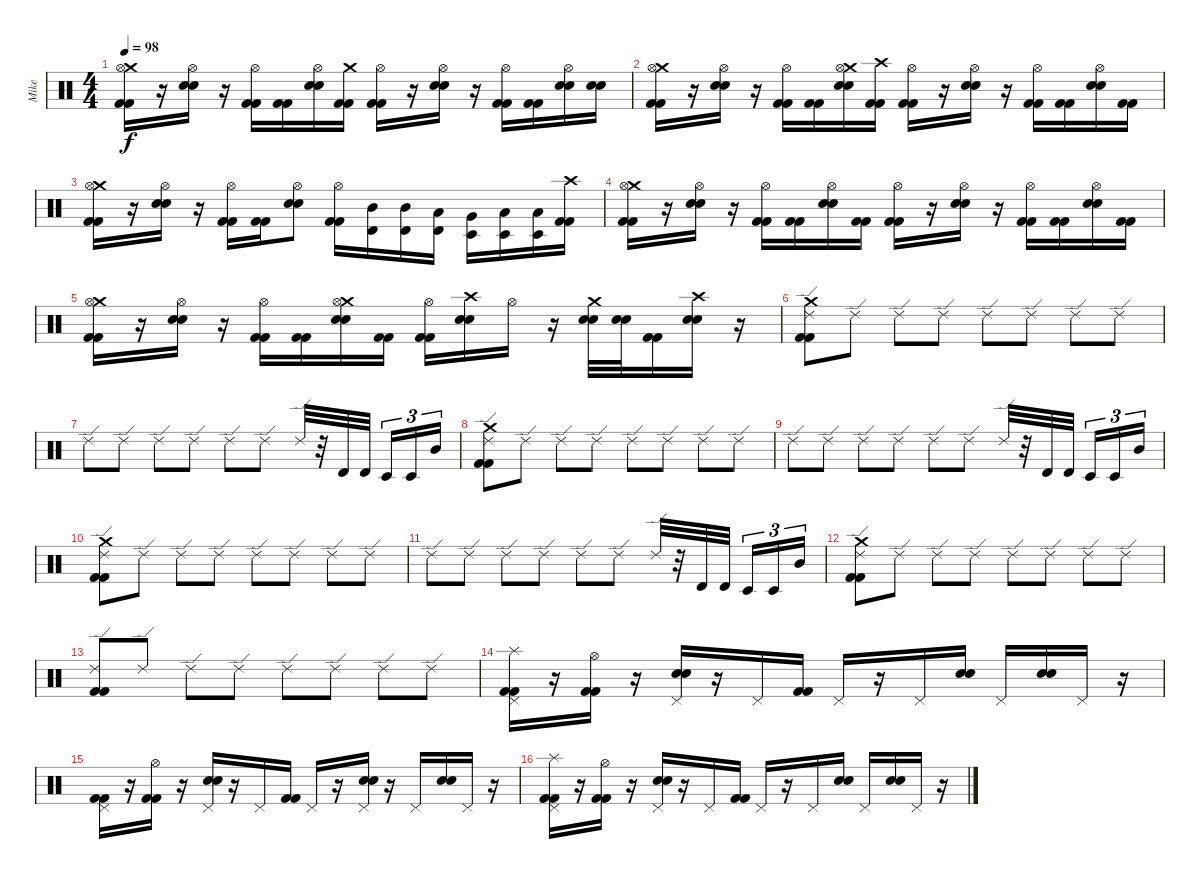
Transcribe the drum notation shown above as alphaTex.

\track ("Mike" "Mike") {instrument percussion}
\staff {score}
\articulation defaults
\ts (4 4)
\tempo 98
\clef neutral
\ks c
("Crash medium (hit)" "Hi-Hat (open)" "Kick (hit) 2" "Kick (hit) 2").16{dy f} r.16 ("Hi-Hat (open)" "Electric Snare (hit)" "Electric Snare (hit)").16 r.16 ("Hi-Hat (open)" "Kick (hit) 2" "Kick (hit) 2").16 ("Kick (hit) 2" "Kick (hit) 2").16 ("Hi-Hat (open)" "Electric Snare (hit)" "Electric Snare (hit)").16 ("Crash medium (hit)" "Kick (hit) 2" "Kick (hit) 2").16 ("Hi-Hat (open)" "Kick (hit) 2" "Kick (hit) 2").16 r.16 ("Hi-Hat (open)" "Electric Snare (hit)" "Electric Snare (hit)").16 r.16 ("Hi-Hat (open)" "Kick (hit) 2" "Kick (hit) 2").16 ("Kick (hit) 2" "Kick (hit) 2").16 ("Hi-Hat (open)" "Electric Snare (hit)" "Electric Snare (hit)").16 ("Electric Snare (hit)" "Electric Snare (hit)").16 |
("Crash medium (hit)" "Hi-Hat (open)" "Kick (hit) 2" "Kick (hit) 2").16 r.16 ("Hi-Hat (open)" "Electric Snare (hit)" "Electric Snare (hit)").16 r.16 ("Hi-Hat (open)" "Kick (hit) 2" "Kick (hit) 2").16 ("Kick (hit) 2" "Kick (hit) 2").16 ("Crash medium (hit)" "Hi-Hat (open)" "Electric Snare (hit)" "Electric Snare (hit)").16 ("Crash high (hit)" "Kick (hit) 2" "Kick (hit) 2").16 ("Hi-Hat (open)" "Kick (hit) 2" "Kick (hit) 2").16 r.16 ("Hi-Hat (open)" "Electric Snare (hit)" "Electric Snare (hit)").16 r.16 ("Hi-Hat (open)" "Kick (hit) 2" "Kick (hit) 2").16 ("Kick (hit) 2" "Kick (hit) 2").16 ("Hi-Hat (open)" "Electric Snare (hit)" "Electric Snare (hit)").16 ("Kick (hit) 2" "Kick (hit) 2").16 |
("Crash medium (hit)" "Hi-Hat (open)" "Kick (hit) 2" "Kick (hit) 2").16 r.16 ("Hi-Hat (open)" "Electric Snare (hit)" "Electric Snare (hit)").16 r.16 ("Hi-Hat (open)" "Kick (hit) 2" "Kick (hit) 2").16 ("Kick (hit) 2" "Kick (hit) 2").16 ("Hi-Hat (open)" "Electric Snare (hit)" "Electric Snare (hit)").8 ("Hi-Hat (open)" "Kick (hit) 2" "Kick (hit) 2").16 ("Timbale high (hit)" "Mid Tom (hit)").16 ("Mid Tom (hit)" "Timbale high (hit)").16 ("Low Tom (hit)" "Timbale high (hit)").16 ("Very Low Tom (hit)" "Timbale low (hit)").16 ("Low Floor Tom (hit)" "Timbale low (hit)").16 ("Low Floor Tom (hit)" "Timbale low (hit)").16 ("Crash high (hit)" "Kick (hit) 2" "Kick (hit) 2").16 |
("Crash medium (hit)" "Hi-Hat (open)" "Kick (hit) 2" "Kick (hit) 2").16 r.16 ("Hi-Hat (open)" "Electric Snare (hit)" "Electric Snare (hit)").16 r.16 ("Hi-Hat (open)" "Kick (hit) 2" "Kick (hit) 2").16 ("Kick (hit) 2" "Kick (hit) 2").16 ("Hi-Hat (open)" "Electric Snare (hit)" "Electric Snare (hit)").16 ("Kick (hit) 2" "Kick (hit) 2").16 ("Hi-Hat (open)" "Kick (hit) 2" "Kick (hit) 2").16 r.16 ("Hi-Hat (open)" "Electric Snare (hit)" "Electric Snare (hit)").16 r.16 ("Hi-Hat (open)" "Kick (hit) 2" "Kick (hit) 2").16 ("Kick (hit) 2" "Kick (hit) 2").16 ("Hi-Hat (open)" "Electric Snare (hit)" "Electric Snare (hit)").16 ("Kick (hit) 2" "Kick (hit) 2").16 |
("Crash medium (hit)" "Hi-Hat (open)" "Kick (hit) 2" "Kick (hit) 2").16 r.16 ("Hi-Hat (open)" "Electric Snare (hit)" "Electric Snare (hit)").16 r.16 ("Hi-Hat (open)" "Kick (hit) 2" "Kick (hit) 2").16 ("Kick (hit) 2" "Kick (hit) 2").16 ("Crash medium (hit)" "Hi-Hat (open)" "Electric Snare (hit)" "Electric Snare (hit)").16 ("Kick (hit) 2" "Kick (hit) 2").16 ("Hi-Hat (open)" "Kick (hit) 2" "Kick (hit) 2").16 ("Crash high (hit)" "Electric Snare (hit)" "Electric Snare (hit)").16 "Hi-Hat (open)".16 r.16 ("Crash medium (hit)" "Electric Snare (hit)" "Electric Snare (hit)").32 ("Electric Snare (hit)" "Electric Snare (hit)").32 ("Kick (hit) 2" "Kick (hit) 2").16 ("Crash high (hit)" "Electric Snare (hit)" "Electric Snare (hit)").16 r.16 |
("Crash medium (hit)" "Ride (edge) 2" "Kick (hit) 2" "Kick (hit) 2").8 "Ride (edge) 2".8 "Ride (edge) 2".8 "Ride (edge) 2".8 "Ride (edge) 2".8 "Ride (edge) 2".8 "Ride (edge) 2".8 "Ride (edge) 2".8 |
"Ride (edge) 2".8 "Ride (edge) 2".8 "Ride (edge) 2".8 "Ride (edge) 2".8 "Ride (edge) 2".8 "Ride (edge) 2".8 "Ride (edge) 2".32 r.32 "Timbale high (hit)".32 "Timbale high (hit)".32 "Timbale low (hit)".16{tu (3 2)} "Timbale low (hit)".16{tu (3 2)} "Mid Tom (hit)".16{tu (3 2)} |
("Crash medium (hit)" "Ride (edge) 2" "Kick (hit) 2" "Kick (hit) 2").8 "Ride (edge) 2".8 "Ride (edge) 2".8 "Ride (edge) 2".8 "Ride (edge) 2".8 "Ride (edge) 2".8 "Ride (edge) 2".8 "Ride (edge) 2".8 |
"Ride (edge) 2".8 "Ride (edge) 2".8 "Ride (edge) 2".8 "Ride (edge) 2".8 "Ride (edge) 2".8 "Ride (edge) 2".8 "Ride (edge) 2".32 r.32 "Timbale high (hit)".32 "Timbale high (hit)".32 "Timbale low (hit)".16{tu (3 2)} "Timbale low (hit)".16{tu (3 2)} "Mid Tom (hit)".16{tu (3 2)} |
("Crash medium (hit)" "Ride (edge) 2" "Kick (hit) 2" "Kick (hit) 2").8 "Ride (edge) 2".8 "Ride (edge) 2".8 "Ride (edge) 2".8 "Ride (edge) 2".8 "Ride (edge) 2".8 "Ride (edge) 2".8 "Ride (edge) 2".8 |
"Ride (edge) 2".8 "Ride (edge) 2".8 "Ride (edge) 2".8 "Ride (edge) 2".8 "Ride (edge) 2".8 "Ride (edge) 2".8 "Ride (edge) 2".32 r.32 "Timbale high (hit)".32 "Timbale high (hit)".32 "Timbale low (hit)".16{tu (3 2)} "Timbale low (hit)".16{tu (3 2)} "Mid Tom (hit)".16{tu (3 2)} |
("Crash medium (hit)" "Ride (edge) 2" "Kick (hit) 2" "Kick (hit) 2").8 "Ride (edge) 2".8 "Ride (edge) 2".8 "Ride (edge) 2".8 "Ride (edge) 2".8 "Ride (edge) 2".8 "Ride (edge) 2".8 "Ride (edge) 2".8 |
("Ride (edge) 2" "Kick (hit) 2" "Kick (hit) 2").8 "Ride (edge) 2".8 "Ride (edge) 2".8 "Ride (edge) 2".8 "Ride (edge) 2".8 "Ride (edge) 2".8 "Ride (edge) 2".8 "Ride (edge) 2".8 |
("Splash (hit)" "Pedal Hi-Hat (hit)" "Kick (hit) 2" "Kick (hit) 2").16 r.16 ("Hi-Hat (open)" "Kick (hit) 2" "Kick (hit) 2").16 r.16 ("Pedal Hi-Hat (hit)" "Electric Snare (hit)" "Electric Snare (hit)").16 r.16 "Pedal Hi-Hat (hit)".16 ("Kick (hit) 2" "Kick (hit) 2").16 "Pedal Hi-Hat (hit)".16 r.16 "Pedal Hi-Hat (hit)".16 ("Electric Snare (hit)" "Electric Snare (hit)").16 "Pedal Hi-Hat (hit)".16 ("Electric Snare (hit)" "Electric Snare (hit)").16 "Pedal Hi-Hat (hit)".16 r.16 |
("Pedal Hi-Hat (hit)" "Kick (hit) 2" "Kick (hit) 2").16 r.16 ("Hi-Hat (open)" "Kick (hit) 2" "Kick (hit) 2").16 r.16 ("Pedal Hi-Hat (hit)" "Electric Snare (hit)" "Electric Snare (hit)").16 r.16 "Pedal Hi-Hat (hit)".16 ("Kick (hit) 2" "Kick (hit) 2").16 "Pedal Hi-Hat (hit)".16 r.16 ("Pedal Hi-Hat (hit)" "Electric Snare (hit)" "Electric Snare (hit)").16 r.16 "Pedal Hi-Hat (hit)".16 ("Electric Snare (hit)" "Electric Snare (hit)").16 "Pedal Hi-Hat (hit)".16 r.16 |
("Splash (hit)" "Pedal Hi-Hat (hit)" "Kick (hit) 2" "Kick (hit) 2").16 r.16 ("Hi-Hat (open)" "Kick (hit) 2" "Kick (hit) 2").16 r.16 ("Pedal Hi-Hat (hit)" "Electric Snare (hit)" "Electric Snare (hit)").16 r.16 "Pedal Hi-Hat (hit)".16 ("Kick (hit) 2" "Kick (hit) 2").16 "Pedal Hi-Hat (hit)".16 r.16 "Pedal Hi-Hat (hit)".16 ("Electric Snare (hit)" "Electric Snare (hit)").16 "Pedal Hi-Hat (hit)".16 ("Electric Snare (hit)" "Electric Snare (hit)").16 "Pedal Hi-Hat (hit)".16 r.16
